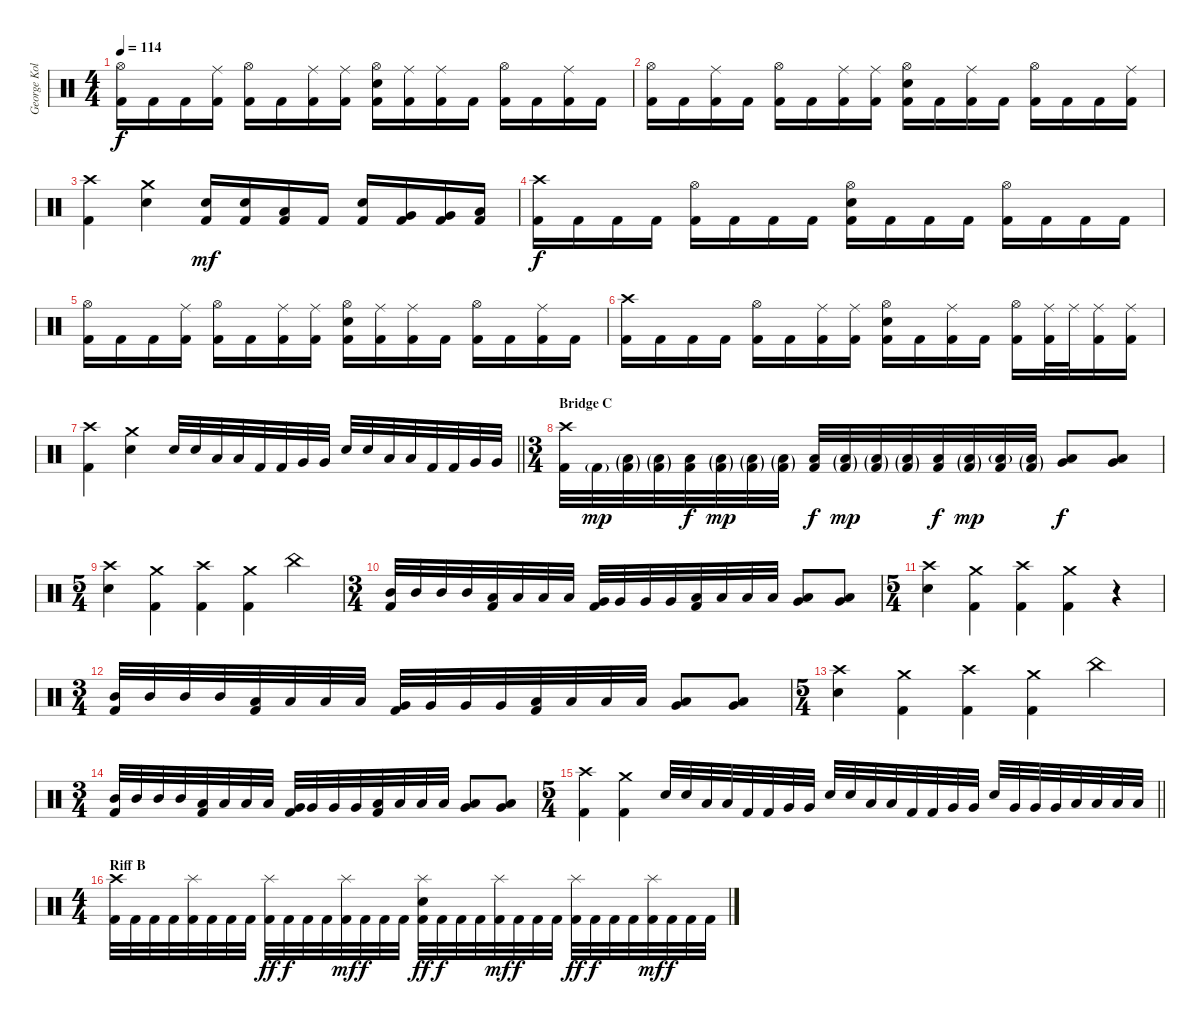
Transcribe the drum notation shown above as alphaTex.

\track ("George Kollias" "George Kol") {instrument percussion}
\staff {score}
\articulation defaults
\ts (4 4)
\tempo 114
\clef neutral
\ks c
("Hi-Hat (open)" "Kick (hit) 2").16{dy f} "Kick (hit) 2".16 "Kick (hit) 2".16 ("Ride (middle)" "Kick (hit) 2").16 ("Hi-Hat (open)" "Kick (hit) 2").16 "Kick (hit) 2".16 ("Ride (middle)" "Kick (hit) 2").16 ("Ride (middle)" "Kick (hit) 2").16 ("Hi-Hat (open)" "Electric Snare (hit)" "Kick (hit) 2").16 ("Ride (middle)" "Kick (hit) 2").16 ("Ride (middle)" "Kick (hit) 2").16 "Kick (hit) 2".16 ("Hi-Hat (open)" "Kick (hit) 2").16 "Kick (hit) 2".16 ("Ride (middle)" "Kick (hit) 2").16 "Kick (hit) 2".16 |
("Hi-Hat (open)" "Kick (hit) 2").16 "Kick (hit) 2".16 ("Ride (middle)" "Kick (hit) 2").16 "Kick (hit) 2".16 ("Hi-Hat (open)" "Kick (hit) 2").16 "Kick (hit) 2".16 ("Ride (middle)" "Kick (hit) 2").16 ("Ride (middle)" "Kick (hit) 2").16 ("Hi-Hat (open)" "Electric Snare (hit)" "Kick (hit) 2").16 "Kick (hit) 2".16 ("Ride (middle)" "Kick (hit) 2").16 "Kick (hit) 2".16 ("Hi-Hat (open)" "Kick (hit) 2").16 "Kick (hit) 2".16 "Kick (hit) 2".16 ("Ride (middle)" "Kick (hit) 2").16 |
("Crash high (hit)" "Kick (hit) 2").4 ("Crash medium (hit)" "Electric Snare (hit)").4 ("Electric Snare (hit)" "Kick (hit) 2").16{dy mf} ("Electric Snare (hit)" "Kick (hit) 2").16 ("Low Tom (hit)" "Kick (hit) 2").16 "Kick (hit) 2".16 ("Electric Snare (hit)" "Kick (hit) 2").16 ("Very Low Tom (hit)" "Kick (hit) 2").16 ("Very Low Tom (hit)" "Kick (hit) 2").16 ("Low Floor Tom (hit)" "Kick (hit) 2").16 |
("Crash high (hit)" "Kick (hit) 2").16{dy f} "Kick (hit) 2".16 "Kick (hit) 2".16 "Kick (hit) 2".16 ("Hi-Hat (open)" "Kick (hit) 2").16 "Kick (hit) 2".16 "Kick (hit) 2".16 "Kick (hit) 2".16 ("Hi-Hat (open)" "Electric Snare (hit)" "Kick (hit) 2").16 "Kick (hit) 2".16 "Kick (hit) 2".16 "Kick (hit) 2".16 ("Hi-Hat (open)" "Kick (hit) 2").16 "Kick (hit) 2".16 "Kick (hit) 2".16 "Kick (hit) 2".16 |
("Hi-Hat (open)" "Kick (hit) 2").16 "Kick (hit) 2".16 "Kick (hit) 2".16 ("Ride (middle)" "Kick (hit) 2").16 ("Hi-Hat (open)" "Kick (hit) 2").16 "Kick (hit) 2".16 ("Ride (middle)" "Kick (hit) 2").16 ("Ride (middle)" "Kick (hit) 2").16 ("Hi-Hat (open)" "Electric Snare (hit)" "Kick (hit) 2").16 ("Ride (middle)" "Kick (hit) 2").16 ("Ride (middle)" "Kick (hit) 2").16 "Kick (hit) 2".16 ("Hi-Hat (open)" "Kick (hit) 2").16 "Kick (hit) 2".16 ("Ride (middle)" "Kick (hit) 2").16 "Kick (hit) 2".16 |
("Crash high (hit)" "Kick (hit) 2").16 "Kick (hit) 2".16 "Kick (hit) 2".16 "Kick (hit) 2".16 ("Hi-Hat (open)" "Kick (hit) 2").16 "Kick (hit) 2".16 ("Ride (middle)" "Kick (hit) 2").16 ("Ride (middle)" "Kick (hit) 2").16 ("Hi-Hat (open)" "Electric Snare (hit)" "Kick (hit) 2").16 "Kick (hit) 2".16 ("Ride (middle)" "Kick (hit) 2").16 "Kick (hit) 2".16 ("Hi-Hat (open)" "Kick (hit) 2").16 ("Ride (middle)" "Kick (hit) 2").32 "Ride (middle)".32 ("Ride (middle)" "Kick (hit) 2").16 ("Ride (middle)" "Kick (hit) 2").16 |
\barLineRight lightlight
("Crash high (hit)" "Kick (hit) 2").4 ("Crash medium (hit)" "Electric Snare (hit)").4 "Electric Snare (hit)".32 "Electric Snare (hit)".32 "Low Tom (hit)".32 "Low Tom (hit)".32 "Kick (hit) 2".32 "Kick (hit) 2".32 "Very Low Tom (hit)".32 "Very Low Tom (hit)".32 "Electric Snare (hit)".32 "Electric Snare (hit)".32 "Low Tom (hit)".32 "Low Tom (hit)".32 "Kick (hit) 2".32 "Kick (hit) 2".32 "Very Low Tom (hit)".32 "Very Low Tom (hit)".32 |
\ts (3 4)
\section ("" "Bridge C")
("Crash high (hit)" "Kick (hit) 2").32 "Kick (hit) 2"{g}.32{dy mp} ("Low Floor Tom (hit)"{g} "Kick (hit) 2"{g}).32 ("Low Floor Tom (hit)"{g} "Kick (hit) 2"{g}).32 ("Low Floor Tom (hit)" "Kick (hit) 2").32{dy f} ("Low Floor Tom (hit)"{g} "Kick (hit) 2"{g}).32{dy mp} ("Low Floor Tom (hit)"{g} "Kick (hit) 2"{g}).32 ("Low Floor Tom (hit)"{g} "Kick (hit) 2"{g}).32 ("Low Floor Tom (hit)" "Kick (hit) 2").32{dy f} ("Low Floor Tom (hit)"{g} "Kick (hit) 2"{g}).32{dy mp} ("Low Floor Tom (hit)"{g} "Kick (hit) 2"{g}).32 ("Low Floor Tom (hit)"{g} "Kick (hit) 2"{g}).32 ("Low Floor Tom (hit)" "Kick (hit) 2").32{dy f} ("Low Floor Tom (hit)"{g} "Kick (hit) 2"{g}).32{dy mp} ("Low Floor Tom (hit)"{g} "Kick (hit) 2").32 ("Low Floor Tom (hit)"{g} "Kick (hit) 2"{g}).32 ("Very Low Tom (hit)" "Low Floor Tom (hit)").8{dy f} ("Very Low Tom (hit)" "Low Floor Tom (hit)").8 |
\ts (5 4)
("Crash high (hit)" "Electric Snare (hit)").4 ("Crash medium (hit)" "Kick (hit) 2").4 ("Crash high (hit)" "Kick (hit) 2").4 ("Crash medium (hit)" "Kick (hit) 2").4 "China (hit)".4 |
\ts (3 4)
("Mid Tom (hit)" "Kick (hit) 2").32 "Mid Tom (hit)".32 "Mid Tom (hit)".32 "Mid Tom (hit)".32 ("Low Tom (hit)" "Kick (hit) 2").32 "Low Tom (hit)".32 "Low Tom (hit)".32 "Low Tom (hit)".32 ("Very Low Tom (hit)" "Kick (hit) 2").32 "Very Low Tom (hit)".32 "Very Low Tom (hit)".32 "Very Low Tom (hit)".32 ("Low Floor Tom (hit)" "Kick (hit) 2").32 "Low Floor Tom (hit)".32 "Low Floor Tom (hit)".32 "Low Floor Tom (hit)".32 ("Very Low Tom (hit)" "Low Floor Tom (hit)").8 ("Very Low Tom (hit)" "Low Floor Tom (hit)").8 |
\ts (5 4)
("Crash high (hit)" "Electric Snare (hit)").4 ("Crash medium (hit)" "Kick (hit) 2").4 ("Crash high (hit)" "Kick (hit) 2").4 ("Crash medium (hit)" "Kick (hit) 2").4 r.4 |
\ts (3 4)
("Mid Tom (hit)" "Kick (hit) 2").32 "Mid Tom (hit)".32 "Mid Tom (hit)".32 "Mid Tom (hit)".32 ("Low Tom (hit)" "Kick (hit) 2").32 "Low Tom (hit)".32 "Low Tom (hit)".32 "Low Tom (hit)".32 ("Very Low Tom (hit)" "Kick (hit) 2").32 "Very Low Tom (hit)".32 "Very Low Tom (hit)".32 "Very Low Tom (hit)".32 ("Low Floor Tom (hit)" "Kick (hit) 2").32 "Low Floor Tom (hit)".32 "Low Floor Tom (hit)".32 "Low Floor Tom (hit)".32 ("Very Low Tom (hit)" "Low Floor Tom (hit)").8 ("Very Low Tom (hit)" "Low Floor Tom (hit)").8 |
\ts (5 4)
("Crash high (hit)" "Electric Snare (hit)").4 ("Crash medium (hit)" "Kick (hit) 2").4 ("Crash high (hit)" "Kick (hit) 2").4 ("Crash medium (hit)" "Kick (hit) 2").4 "China (hit)".4 |
\ts (3 4)
("Mid Tom (hit)" "Kick (hit) 2").32 "Mid Tom (hit)".32 "Mid Tom (hit)".32 "Mid Tom (hit)".32 ("Low Tom (hit)" "Kick (hit) 2").32 "Low Tom (hit)".32 "Low Tom (hit)".32 "Low Tom (hit)".32 ("Very Low Tom (hit)" "Kick (hit) 2").32 "Very Low Tom (hit)".32 "Very Low Tom (hit)".32 "Very Low Tom (hit)".32 ("Low Floor Tom (hit)" "Kick (hit) 2").32 "Low Floor Tom (hit)".32 "Low Floor Tom (hit)".32 "Low Floor Tom (hit)".32 ("Very Low Tom (hit)" "Low Floor Tom (hit)").8 ("Very Low Tom (hit)" "Low Floor Tom (hit)").8 |
\ts (5 4)
\barLineRight lightlight
("Crash high (hit)" "Kick (hit) 2").4 ("Crash medium (hit)" "Kick (hit) 2").4 "Electric Snare (hit)".32 "Electric Snare (hit)".32 "Low Tom (hit)".32 "Low Tom (hit)".32 "Kick (hit) 2".32 "Kick (hit) 2".32 "Very Low Tom (hit)".32 "Very Low Tom (hit)".32 "Electric Snare (hit)".32 "Electric Snare (hit)".32 "Low Tom (hit)".32 "Low Tom (hit)".32 "Kick (hit) 2".32 "Kick (hit) 2".32 "Very Low Tom (hit)".32 "Very Low Tom (hit)".32 "Electric Snare (hit)".32 "Very Low Tom (hit)".32 "Very Low Tom (hit)".32 "Very Low Tom (hit)".32 "Low Floor Tom (hit)".32 "Low Floor Tom (hit)".32 "Low Floor Tom (hit)".32 "Low Floor Tom (hit)".32 |
\ts (4 4)
\section ("" "Riff B")
("Crash high (hit)" "Kick (hit) 2").32 "Kick (hit) 2".32 "Kick (hit) 2".32 "Kick (hit) 2".32 ("Splash (hit)" "Kick (hit) 2").32 "Kick (hit) 2".32 "Kick (hit) 2".32 "Kick (hit) 2".32 ("Splash (hit)" "Kick (hit) 2").32{dy ff} "Kick (hit) 2".32{dy f} "Kick (hit) 2".32 "Kick (hit) 2".32 ("Splash (hit)" "Kick (hit) 2").32{dy mf} "Kick (hit) 2".32{dy f} "Kick (hit) 2".32 "Kick (hit) 2".32 ("Splash (hit)" "Electric Snare (hit)" "Kick (hit) 2").32{dy ff} "Kick (hit) 2".32{dy f} "Kick (hit) 2".32 "Kick (hit) 2".32 ("Splash (hit)" "Kick (hit) 2").32{dy mf} "Kick (hit) 2".32{dy f} "Kick (hit) 2".32 "Kick (hit) 2".32 ("Splash (hit)" "Kick (hit) 2").32{dy ff} "Kick (hit) 2".32{dy f} "Kick (hit) 2".32 "Kick (hit) 2".32 ("Splash (hit)" "Kick (hit) 2").32{dy mf} "Kick (hit) 2".32{dy f} "Kick (hit) 2".32 "Kick (hit) 2".32
